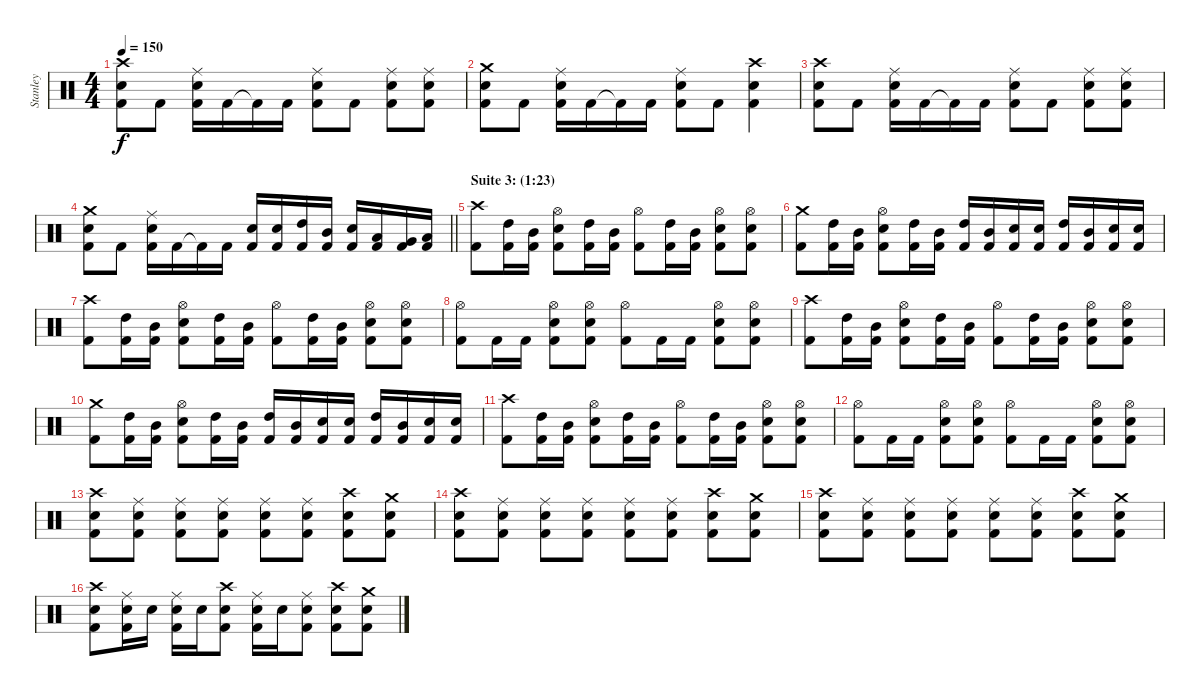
\track ("Stanley" "Stanley") {instrument percussion}
\staff {score}
\articulation defaults
\ts (4 4)
\tempo 150
\clef neutral
\ks c
("Crash high (hit)" "Electric Snare (hit)" "Kick (hit) 2").8{dy f} "Kick (hit) 2".8 ("Ride (middle)" "Electric Snare (hit)" "Kick (hit) 2").16 "Kick (hit) 2".16 "Kick (hit) 2"{t}.16 "Kick (hit) 2".16 ("Ride (middle)" "Electric Snare (hit)" "Kick (hit) 2").8 "Kick (hit) 2".8 ("Ride (middle)" "Electric Snare (hit)" "Kick (hit) 2").8 ("Ride (middle)" "Electric Snare (hit)" "Kick (hit) 2").8 |
("Crash medium (hit)" "Electric Snare (hit)" "Kick (hit) 2").8 "Kick (hit) 2".8 ("Ride (middle)" "Electric Snare (hit)" "Kick (hit) 2").16 "Kick (hit) 2".16 "Kick (hit) 2"{t}.16 "Kick (hit) 2".16 ("Ride (middle)" "Electric Snare (hit)" "Kick (hit) 2").8 "Kick (hit) 2".8 ("Crash high (hit)" "Electric Snare (hit)" "Kick (hit) 2").4 |
("Crash high (hit)" "Electric Snare (hit)" "Kick (hit) 2").8 "Kick (hit) 2".8 ("Ride (middle)" "Electric Snare (hit)" "Kick (hit) 2").16 "Kick (hit) 2".16 "Kick (hit) 2"{t}.16 "Kick (hit) 2".16 ("Ride (middle)" "Electric Snare (hit)" "Kick (hit) 2").8 "Kick (hit) 2".8 ("Ride (middle)" "Electric Snare (hit)" "Kick (hit) 2").8 ("Ride (middle)" "Electric Snare (hit)" "Kick (hit) 2").8 |
\barLineRight lightlight
("Crash medium (hit)" "Electric Snare (hit)" "Kick (hit) 2").8 "Kick (hit) 2".8 ("Ride (middle)" "Electric Snare (hit)" "Kick (hit) 2").16 "Kick (hit) 2".16 "Kick (hit) 2"{t}.16 "Kick (hit) 2".16 ("Electric Snare (hit)" "Kick (hit) 2").16 ("Electric Snare (hit)" "Kick (hit) 2").16 ("High Tom (hit)" "Kick (hit) 2").16 ("Mid Tom (hit)" "Kick (hit) 2").16 ("Electric Snare (hit)" "Kick (hit) 2").16 ("Low Tom (hit)" "Kick (hit) 2").16 ("Very Low Tom (hit)" "Kick (hit) 2").16 ("Low Floor Tom (hit)" "Kick (hit) 2").16 |
\section ("" "Suite 3: (1:23)")
("Crash high (hit)" "Kick (hit) 2").8 ("High Tom (hit)" "Kick (hit) 2").16 ("Mid Tom (hit)" "Kick (hit) 2").16 ("Hi-Hat (open)" "Electric Snare (hit)" "Kick (hit) 2").8 ("High Tom (hit)" "Kick (hit) 2").16 ("Mid Tom (hit)" "Kick (hit) 2").16 ("Hi-Hat (open)" "Kick (hit) 2").8 ("High Tom (hit)" "Kick (hit) 2").16 ("Mid Tom (hit)" "Kick (hit) 2").16 ("Hi-Hat (open)" "Electric Snare (hit)" "Kick (hit) 2").8 ("Hi-Hat (open)" "Electric Snare (hit)" "Kick (hit) 2").8 |
("Crash medium (hit)" "Kick (hit) 2").8 ("High Tom (hit)" "Kick (hit) 2").16 ("Mid Tom (hit)" "Kick (hit) 2").16 ("Hi-Hat (open)" "Electric Snare (hit)" "Kick (hit) 2").8 ("High Tom (hit)" "Kick (hit) 2").16 ("Mid Tom (hit)" "Kick (hit) 2").16 ("High Tom (hit)" "Kick (hit) 2").16 ("Mid Tom (hit)" "Kick (hit) 2").16 ("Electric Snare (hit)" "Kick (hit) 2").16 ("Electric Snare (hit)" "Kick (hit) 2").16 ("High Tom (hit)" "Kick (hit) 2").16 ("Mid Tom (hit)" "Kick (hit) 2").16 ("Electric Snare (hit)" "Kick (hit) 2").16 ("Electric Snare (hit)" "Kick (hit) 2").16 |
("Crash high (hit)" "Kick (hit) 2").8 ("High Tom (hit)" "Kick (hit) 2").16 ("Mid Tom (hit)" "Kick (hit) 2").16 ("Hi-Hat (open)" "Electric Snare (hit)" "Kick (hit) 2").8 ("High Tom (hit)" "Kick (hit) 2").16 ("Mid Tom (hit)" "Kick (hit) 2").16 ("Hi-Hat (open)" "Kick (hit) 2").8 ("High Tom (hit)" "Kick (hit) 2").16 ("Mid Tom (hit)" "Kick (hit) 2").16 ("Hi-Hat (open)" "Electric Snare (hit)" "Kick (hit) 2").8 ("Hi-Hat (open)" "Electric Snare (hit)" "Kick (hit) 2").8 |
("Hi-Hat (open)" "Kick (hit) 2").8 "Kick (hit) 2".16 "Kick (hit) 2".16 ("Hi-Hat (open)" "Electric Snare (hit)" "Kick (hit) 2").8 ("Hi-Hat (open)" "Electric Snare (hit)" "Kick (hit) 2").8 ("Hi-Hat (open)" "Kick (hit) 2").8 "Kick (hit) 2".16 "Kick (hit) 2".16 ("Hi-Hat (open)" "Electric Snare (hit)" "Kick (hit) 2").8 ("Hi-Hat (open)" "Electric Snare (hit)" "Kick (hit) 2").8 |
("Crash high (hit)" "Kick (hit) 2").8 ("High Tom (hit)" "Kick (hit) 2").16 ("Mid Tom (hit)" "Kick (hit) 2").16 ("Hi-Hat (open)" "Electric Snare (hit)" "Kick (hit) 2").8 ("High Tom (hit)" "Kick (hit) 2").16 ("Mid Tom (hit)" "Kick (hit) 2").16 ("Hi-Hat (open)" "Kick (hit) 2").8 ("High Tom (hit)" "Kick (hit) 2").16 ("Mid Tom (hit)" "Kick (hit) 2").16 ("Hi-Hat (open)" "Electric Snare (hit)" "Kick (hit) 2").8 ("Hi-Hat (open)" "Electric Snare (hit)" "Kick (hit) 2").8 |
("Crash medium (hit)" "Kick (hit) 2").8 ("High Tom (hit)" "Kick (hit) 2").16 ("Mid Tom (hit)" "Kick (hit) 2").16 ("Hi-Hat (open)" "Electric Snare (hit)" "Kick (hit) 2").8 ("High Tom (hit)" "Kick (hit) 2").16 ("Mid Tom (hit)" "Kick (hit) 2").16 ("High Tom (hit)" "Kick (hit) 2").16 ("Mid Tom (hit)" "Kick (hit) 2").16 ("Electric Snare (hit)" "Kick (hit) 2").16 ("Electric Snare (hit)" "Kick (hit) 2").16 ("High Tom (hit)" "Kick (hit) 2").16 ("Mid Tom (hit)" "Kick (hit) 2").16 ("Electric Snare (hit)" "Kick (hit) 2").16 ("Electric Snare (hit)" "Kick (hit) 2").16 |
("Crash high (hit)" "Kick (hit) 2").8 ("High Tom (hit)" "Kick (hit) 2").16 ("Mid Tom (hit)" "Kick (hit) 2").16 ("Hi-Hat (open)" "Electric Snare (hit)" "Kick (hit) 2").8 ("High Tom (hit)" "Kick (hit) 2").16 ("Mid Tom (hit)" "Kick (hit) 2").16 ("Hi-Hat (open)" "Kick (hit) 2").8 ("High Tom (hit)" "Kick (hit) 2").16 ("Mid Tom (hit)" "Kick (hit) 2").16 ("Hi-Hat (open)" "Electric Snare (hit)" "Kick (hit) 2").8 ("Hi-Hat (open)" "Electric Snare (hit)" "Kick (hit) 2").8 |
("Hi-Hat (open)" "Kick (hit) 2").8 "Kick (hit) 2".16 "Kick (hit) 2".16 ("Hi-Hat (open)" "Electric Snare (hit)" "Kick (hit) 2").8 ("Hi-Hat (open)" "Electric Snare (hit)" "Kick (hit) 2").8 ("Hi-Hat (open)" "Kick (hit) 2").8 "Kick (hit) 2".16 "Kick (hit) 2".16 ("Hi-Hat (open)" "Electric Snare (hit)" "Kick (hit) 2").8 ("Hi-Hat (open)" "Electric Snare (hit)" "Kick (hit) 2").8 |
("Crash high (hit)" "Electric Snare (hit)" "Kick (hit) 2").8 ("Ride (middle)" "Electric Snare (hit)" "Kick (hit) 2").8 ("Ride (middle)" "Electric Snare (hit)" "Kick (hit) 2").8 ("Ride (middle)" "Electric Snare (hit)" "Kick (hit) 2").8 ("Ride (middle)" "Electric Snare (hit)" "Kick (hit) 2").8 ("Ride (middle)" "Electric Snare (hit)" "Kick (hit) 2").8 ("Crash high (hit)" "Electric Snare (hit)" "Kick (hit) 2").8 ("Crash medium (hit)" "Electric Snare (hit)" "Kick (hit) 2").8 |
("Crash high (hit)" "Electric Snare (hit)" "Kick (hit) 2").8 ("Ride (middle)" "Electric Snare (hit)" "Kick (hit) 2").8 ("Ride (middle)" "Electric Snare (hit)" "Kick (hit) 2").8 ("Ride (middle)" "Electric Snare (hit)" "Kick (hit) 2").8 ("Ride (middle)" "Electric Snare (hit)" "Kick (hit) 2").8 ("Ride (middle)" "Electric Snare (hit)" "Kick (hit) 2").8 ("Crash high (hit)" "Electric Snare (hit)" "Kick (hit) 2").8 ("Crash medium (hit)" "Electric Snare (hit)" "Kick (hit) 2").8 |
("Crash high (hit)" "Electric Snare (hit)" "Kick (hit) 2").8 ("Ride (middle)" "Electric Snare (hit)" "Kick (hit) 2").8 ("Ride (middle)" "Electric Snare (hit)" "Kick (hit) 2").8 ("Ride (middle)" "Electric Snare (hit)" "Kick (hit) 2").8 ("Ride (middle)" "Electric Snare (hit)" "Kick (hit) 2").8 ("Ride (middle)" "Electric Snare (hit)" "Kick (hit) 2").8 ("Crash high (hit)" "Electric Snare (hit)" "Kick (hit) 2").8 ("Crash medium (hit)" "Electric Snare (hit)" "Kick (hit) 2").8 |
("Crash high (hit)" "Electric Snare (hit)" "Kick (hit) 2").8 ("Ride (middle)" "Electric Snare (hit)" "Kick (hit) 2").16 "Electric Snare (hit)".16 ("Ride (middle)" "Electric Snare (hit)" "Kick (hit) 2").16 "Electric Snare (hit)".16 ("Crash high (hit)" "Electric Snare (hit)" "Kick (hit) 2").8 ("Ride (middle)" "Electric Snare (hit)" "Kick (hit) 2").16 "Electric Snare (hit)".16 ("Ride (middle)" "Electric Snare (hit)" "Kick (hit) 2").8 ("Crash high (hit)" "Electric Snare (hit)" "Kick (hit) 2").8 ("Crash medium (hit)" "Electric Snare (hit)" "Kick (hit) 2").8
